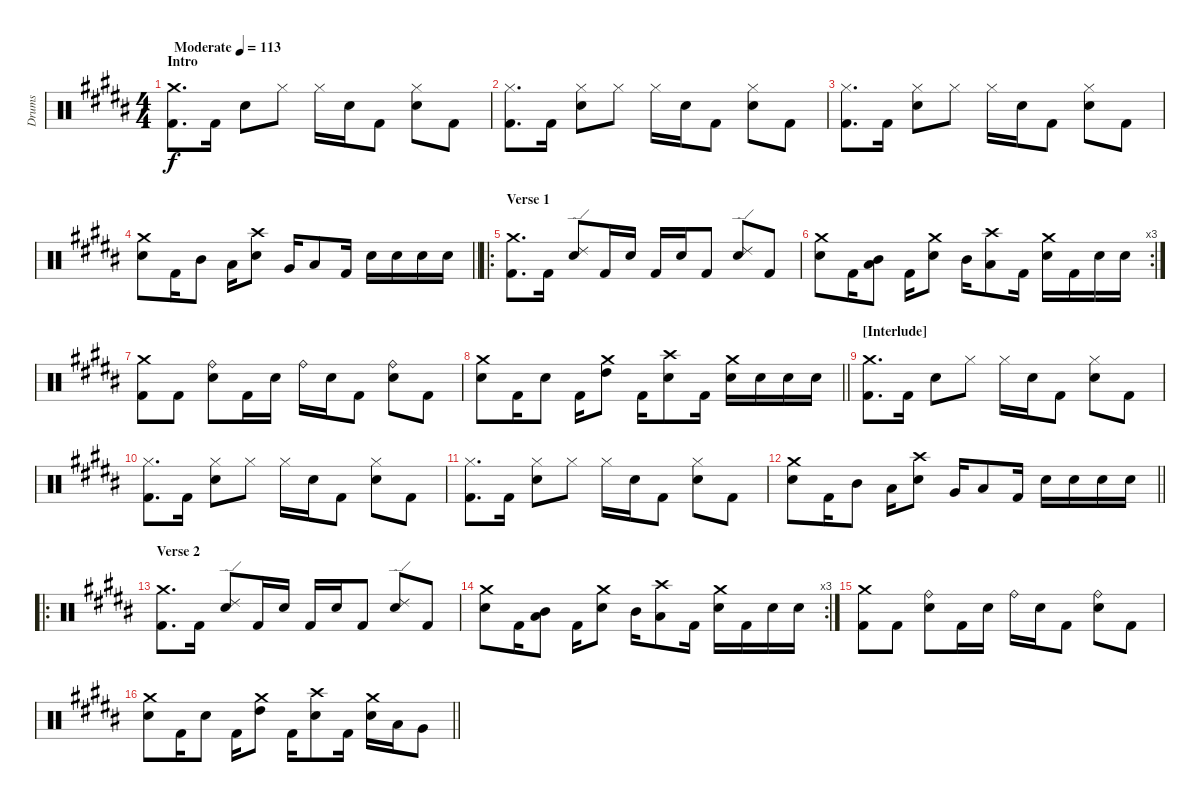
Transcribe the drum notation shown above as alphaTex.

\track ("Drums" "Drums") {instrument percussion}
\staff {score}
\articulation defaults
\ts (4 4)
\section ("" "Intro")
\tempo (113 "Moderate")
\clef neutral
\ks b
("Kick (hit) 2" "Crash medium (hit)").8{d dy f} "Kick (hit) 2".16 "Electric Snare (hit)".8 "Hi-Hat (closed)".8 "Hi-Hat (closed)".16 "Electric Snare (hit)".16 "Kick (hit) 2".8 ("Electric Snare (hit)" "Hi-Hat (closed)").8 "Kick (hit) 2".8 |
("Kick (hit) 2" "Hi-Hat (closed)").8{d} "Kick (hit) 2".16 ("Electric Snare (hit)" "Hi-Hat (closed)").8 "Hi-Hat (closed)".8 "Hi-Hat (closed)".16 "Electric Snare (hit)".16 "Kick (hit) 2".8 ("Electric Snare (hit)" "Hi-Hat (closed)").8 "Kick (hit) 2".8 |
("Kick (hit) 2" "Hi-Hat (closed)").8{d} "Kick (hit) 2".16 ("Electric Snare (hit)" "Hi-Hat (closed)").8 "Hi-Hat (closed)".8 "Hi-Hat (closed)".16 "Electric Snare (hit)".16 "Kick (hit) 2".8 ("Electric Snare (hit)" "Hi-Hat (closed)").8 "Kick (hit) 2".8 |
\barLineRight lightlight
("Electric Snare (hit)" "Crash medium (hit)").8 "Kick (hit) 2".16 "Mid Tom (hit)".8 "Low Tom (hit)".16 ("Electric Snare (hit)" "Crash high (hit)").8 "Very Low Tom (hit)".16 "Low Floor Tom (hit)".8 "Kick (hit) 2".16 "Electric Snare (hit)".16 "Electric Snare (hit)".16 "Electric Snare (hit)".16 "Electric Snare (hit)".16 |
\ro
\section ("" "Verse 1")
("Kick (hit) 2" "Crash medium (hit)").8{d} "Kick (hit) 2".16 ("Electric Snare (hit)" "Ride (edge) 2").8 "Kick (hit) 2".16 "Electric Snare (hit)".16 "Kick (hit) 2".16 "Electric Snare (hit)".16 "Kick (hit) 2".8 ("Electric Snare (hit)" "Ride (edge) 2").8 "Kick (hit) 2".8 |
\rc 3
("Electric Snare (hit)" "Crash medium (hit)").8 "Kick (hit) 2".16 ("Low Tom (hit)" "Mid Tom (hit)").8 "Kick (hit) 2".16 ("Electric Snare (hit)" "Crash medium (hit)").8 "Mid Tom (hit)".16 ("Low Tom (hit)" "Crash high (hit)").8 "Kick (hit) 2".16 ("Electric Snare (hit)" "Crash medium (hit)").16 "Kick (hit) 2".16 "Electric Snare (hit)".16 "Electric Snare (hit)".16 |
("Kick (hit) 2" "Crash medium (hit)").8 "Kick (hit) 2".8 ("Electric Snare (hit)" "Ride (bell)").8 "Kick (hit) 2".16 "Electric Snare (hit)".16 "Ride (bell)".16 "Electric Snare (hit)".16 "Kick (hit) 2".8 ("Electric Snare (hit)" "Ride (bell)").8 "Kick (hit) 2".8 |
\barLineRight lightlight
("Electric Snare (hit)" "Crash medium (hit)").8 "Kick (hit) 2".16 "Electric Snare (hit)".8 "Kick (hit) 2".16 ("High Tom (hit)" "Crash medium (hit)").8 "Kick (hit) 2".16 ("Electric Snare (hit)" "Crash high (hit)").8 "Kick (hit) 2".16 ("Electric Snare (hit)" "Crash medium (hit)").16 "Electric Snare (hit)".16 "Electric Snare (hit)".16 "Electric Snare (hit)".16 |
\section ("" "[Interlude]")
("Kick (hit) 2" "Crash medium (hit)").8{d} "Kick (hit) 2".16 "Electric Snare (hit)".8 "Hi-Hat (closed)".8 "Hi-Hat (closed)".16 "Electric Snare (hit)".16 "Kick (hit) 2".8 ("Electric Snare (hit)" "Hi-Hat (closed)").8 "Kick (hit) 2".8 |
("Kick (hit) 2" "Hi-Hat (closed)").8{d} "Kick (hit) 2".16 ("Electric Snare (hit)" "Hi-Hat (closed)").8 "Hi-Hat (closed)".8 "Hi-Hat (closed)".16 "Electric Snare (hit)".16 "Kick (hit) 2".8 ("Electric Snare (hit)" "Hi-Hat (closed)").8 "Kick (hit) 2".8 |
("Kick (hit) 2" "Hi-Hat (closed)").8{d} "Kick (hit) 2".16 ("Electric Snare (hit)" "Hi-Hat (closed)").8 "Hi-Hat (closed)".8 "Hi-Hat (closed)".16 "Electric Snare (hit)".16 "Kick (hit) 2".8 ("Electric Snare (hit)" "Hi-Hat (closed)").8 "Kick (hit) 2".8 |
\barLineRight lightlight
("Electric Snare (hit)" "Crash medium (hit)").8 "Kick (hit) 2".16 "Mid Tom (hit)".8 "Low Tom (hit)".16 ("Electric Snare (hit)" "Crash high (hit)").8 "Very Low Tom (hit)".16 "Low Floor Tom (hit)".8 "Kick (hit) 2".16 "Electric Snare (hit)".16 "Electric Snare (hit)".16 "Electric Snare (hit)".16 "Electric Snare (hit)".16 |
\ro
\section ("" "Verse 2")
("Kick (hit) 2" "Crash medium (hit)").8{d} "Kick (hit) 2".16 ("Electric Snare (hit)" "Ride (edge) 2").8 "Kick (hit) 2".16 "Electric Snare (hit)".16 "Kick (hit) 2".16 "Electric Snare (hit)".16 "Kick (hit) 2".8 ("Electric Snare (hit)" "Ride (edge) 2").8 "Kick (hit) 2".8 |
\rc 3
("Electric Snare (hit)" "Crash medium (hit)").8 "Kick (hit) 2".16 ("Low Tom (hit)" "Mid Tom (hit)").8 "Kick (hit) 2".16 ("Electric Snare (hit)" "Crash medium (hit)").8 "Mid Tom (hit)".16 ("Low Tom (hit)" "Crash high (hit)").8 "Kick (hit) 2".16 ("Electric Snare (hit)" "Crash medium (hit)").16 "Kick (hit) 2".16 "Electric Snare (hit)".16 "Electric Snare (hit)".16 |
("Kick (hit) 2" "Crash medium (hit)").8 "Kick (hit) 2".8 ("Electric Snare (hit)" "Ride (bell)").8 "Kick (hit) 2".16 "Electric Snare (hit)".16 "Ride (bell)".16 "Electric Snare (hit)".16 "Kick (hit) 2".8 ("Electric Snare (hit)" "Ride (bell)").8 "Kick (hit) 2".8 |
\barLineRight lightlight
("Electric Snare (hit)" "Crash medium (hit)").8 "Kick (hit) 2".16 "Electric Snare (hit)".8 "Kick (hit) 2".16 ("High Tom (hit)" "Crash medium (hit)").8 "Kick (hit) 2".16 ("Electric Snare (hit)" "Crash high (hit)").8 "Kick (hit) 2".16 ("Electric Snare (hit)" "Crash medium (hit)").16 "Low Tom (hit)".16 "Very Low Tom (hit)".8
